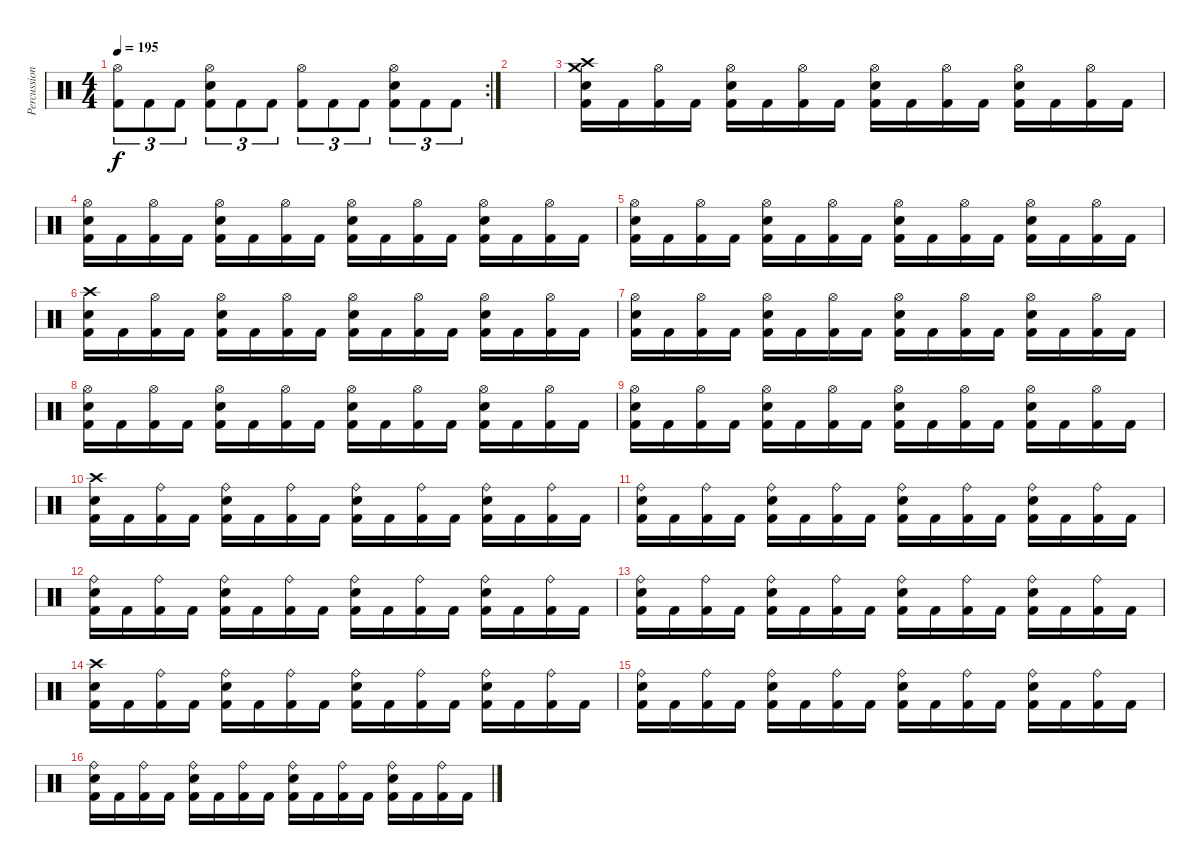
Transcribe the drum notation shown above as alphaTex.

\track ("Percussion" "Percussion") {instrument percussion}
\staff {score}
\articulation defaults
\rc 2
\ts (4 4)
\tempo 195
\clef neutral
\ks c
("Hi-Hat (open)" "Kick (hit) 2").8{tu (3 2) dy f} "Kick (hit) 2".8{tu (3 2)} "Kick (hit) 2".8{tu (3 2)} ("Hi-Hat (open)" "Electric Snare (hit)" "Kick (hit) 2").8{tu (3 2)} "Kick (hit) 2".8{tu (3 2)} "Kick (hit) 2".8{tu (3 2)} ("Hi-Hat (open)" "Kick (hit) 2").8{tu (3 2)} "Kick (hit) 2".8{tu (3 2)} "Kick (hit) 2".8{tu (3 2)} ("Hi-Hat (open)" "Electric Snare (hit)" "Kick (hit) 2").8{tu (3 2)} "Kick (hit) 2".8{tu (3 2)} "Kick (hit) 2".8{tu (3 2)} |
|
("Crash high (hit)" "Crash medium (hit)" "Electric Snare (hit)" "Kick (hit) 2").16 "Kick (hit) 2".16 ("Hi-Hat (open)" "Kick (hit) 2").16 "Kick (hit) 2".16 ("Hi-Hat (open)" "Electric Snare (hit)" "Kick (hit) 2").16 "Kick (hit) 2".16 ("Hi-Hat (open)" "Kick (hit) 2").16 "Kick (hit) 2".16 ("Hi-Hat (open)" "Electric Snare (hit)" "Kick (hit) 2").16 "Kick (hit) 2".16 ("Hi-Hat (open)" "Kick (hit) 2").16 "Kick (hit) 2".16 ("Hi-Hat (open)" "Electric Snare (hit)" "Kick (hit) 2").16 "Kick (hit) 2".16 ("Hi-Hat (open)" "Kick (hit) 2").16 "Kick (hit) 2".16 |
("Hi-Hat (open)" "Electric Snare (hit)" "Kick (hit) 2").16 "Kick (hit) 2".16 ("Hi-Hat (open)" "Kick (hit) 2").16 "Kick (hit) 2".16 ("Hi-Hat (open)" "Electric Snare (hit)" "Kick (hit) 2").16 "Kick (hit) 2".16 ("Hi-Hat (open)" "Kick (hit) 2").16 "Kick (hit) 2".16 ("Hi-Hat (open)" "Electric Snare (hit)" "Kick (hit) 2").16 "Kick (hit) 2".16 ("Hi-Hat (open)" "Kick (hit) 2").16 "Kick (hit) 2".16 ("Hi-Hat (open)" "Electric Snare (hit)" "Kick (hit) 2").16 "Kick (hit) 2".16 ("Hi-Hat (open)" "Kick (hit) 2").16 "Kick (hit) 2".16 |
("Hi-Hat (open)" "Electric Snare (hit)" "Kick (hit) 2").16 "Kick (hit) 2".16 ("Hi-Hat (open)" "Kick (hit) 2").16 "Kick (hit) 2".16 ("Hi-Hat (open)" "Electric Snare (hit)" "Kick (hit) 2").16 "Kick (hit) 2".16 ("Hi-Hat (open)" "Kick (hit) 2").16 "Kick (hit) 2".16 ("Hi-Hat (open)" "Electric Snare (hit)" "Kick (hit) 2").16 "Kick (hit) 2".16 ("Hi-Hat (open)" "Kick (hit) 2").16 "Kick (hit) 2".16 ("Hi-Hat (open)" "Electric Snare (hit)" "Kick (hit) 2").16 "Kick (hit) 2".16 ("Hi-Hat (open)" "Kick (hit) 2").16 "Kick (hit) 2".16 |
("Crash high (hit)" "Electric Snare (hit)" "Kick (hit) 2").16 "Kick (hit) 2".16 ("Hi-Hat (open)" "Kick (hit) 2").16 "Kick (hit) 2".16 ("Hi-Hat (open)" "Electric Snare (hit)" "Kick (hit) 2").16 "Kick (hit) 2".16 ("Hi-Hat (open)" "Kick (hit) 2").16 "Kick (hit) 2".16 ("Hi-Hat (open)" "Electric Snare (hit)" "Kick (hit) 2").16 "Kick (hit) 2".16 ("Hi-Hat (open)" "Kick (hit) 2").16 "Kick (hit) 2".16 ("Hi-Hat (open)" "Electric Snare (hit)" "Kick (hit) 2").16 "Kick (hit) 2".16 ("Hi-Hat (open)" "Kick (hit) 2").16 "Kick (hit) 2".16 |
("Hi-Hat (open)" "Electric Snare (hit)" "Kick (hit) 2").16 "Kick (hit) 2".16 ("Hi-Hat (open)" "Kick (hit) 2").16 "Kick (hit) 2".16 ("Hi-Hat (open)" "Electric Snare (hit)" "Kick (hit) 2").16 "Kick (hit) 2".16 ("Hi-Hat (open)" "Kick (hit) 2").16 "Kick (hit) 2".16 ("Hi-Hat (open)" "Electric Snare (hit)" "Kick (hit) 2").16 "Kick (hit) 2".16 ("Hi-Hat (open)" "Kick (hit) 2").16 "Kick (hit) 2".16 ("Hi-Hat (open)" "Electric Snare (hit)" "Kick (hit) 2").16 "Kick (hit) 2".16 ("Hi-Hat (open)" "Kick (hit) 2").16 "Kick (hit) 2".16 |
("Hi-Hat (open)" "Electric Snare (hit)" "Kick (hit) 2").16 "Kick (hit) 2".16 ("Hi-Hat (open)" "Kick (hit) 2").16 "Kick (hit) 2".16 ("Hi-Hat (open)" "Electric Snare (hit)" "Kick (hit) 2").16 "Kick (hit) 2".16 ("Hi-Hat (open)" "Kick (hit) 2").16 "Kick (hit) 2".16 ("Hi-Hat (open)" "Electric Snare (hit)" "Kick (hit) 2").16 "Kick (hit) 2".16 ("Hi-Hat (open)" "Kick (hit) 2").16 "Kick (hit) 2".16 ("Hi-Hat (open)" "Electric Snare (hit)" "Kick (hit) 2").16 "Kick (hit) 2".16 ("Hi-Hat (open)" "Kick (hit) 2").16 "Kick (hit) 2".16 |
("Hi-Hat (open)" "Electric Snare (hit)" "Kick (hit) 2").16 "Kick (hit) 2".16 ("Hi-Hat (open)" "Kick (hit) 2").16 "Kick (hit) 2".16 ("Hi-Hat (open)" "Electric Snare (hit)" "Kick (hit) 2").16 "Kick (hit) 2".16 ("Hi-Hat (open)" "Kick (hit) 2").16 "Kick (hit) 2".16 ("Hi-Hat (open)" "Electric Snare (hit)" "Kick (hit) 2").16 "Kick (hit) 2".16 ("Hi-Hat (open)" "Kick (hit) 2").16 "Kick (hit) 2".16 ("Hi-Hat (open)" "Electric Snare (hit)" "Kick (hit) 2").16 "Kick (hit) 2".16 ("Hi-Hat (open)" "Kick (hit) 2").16 "Kick (hit) 2".16 |
("Crash high (hit)" "Electric Snare (hit)" "Kick (hit) 2").16 "Kick (hit) 2".16 ("Ride (bell)" "Kick (hit) 2").16 "Kick (hit) 2".16 ("Ride (bell)" "Electric Snare (hit)" "Kick (hit) 2").16 "Kick (hit) 2".16 ("Ride (bell)" "Kick (hit) 2").16 "Kick (hit) 2".16 ("Ride (bell)" "Electric Snare (hit)" "Kick (hit) 2").16 "Kick (hit) 2".16 ("Ride (bell)" "Kick (hit) 2").16 "Kick (hit) 2".16 ("Ride (bell)" "Electric Snare (hit)" "Kick (hit) 2").16 "Kick (hit) 2".16 ("Ride (bell)" "Kick (hit) 2").16 "Kick (hit) 2".16 |
("Ride (bell)" "Electric Snare (hit)" "Kick (hit) 2").16 "Kick (hit) 2".16 ("Ride (bell)" "Kick (hit) 2").16 "Kick (hit) 2".16 ("Ride (bell)" "Electric Snare (hit)" "Kick (hit) 2").16 "Kick (hit) 2".16 ("Ride (bell)" "Kick (hit) 2").16 "Kick (hit) 2".16 ("Ride (bell)" "Electric Snare (hit)" "Kick (hit) 2").16 "Kick (hit) 2".16 ("Ride (bell)" "Kick (hit) 2").16 "Kick (hit) 2".16 ("Ride (bell)" "Electric Snare (hit)" "Kick (hit) 2").16 "Kick (hit) 2".16 ("Ride (bell)" "Kick (hit) 2").16 "Kick (hit) 2".16 |
("Ride (bell)" "Electric Snare (hit)" "Kick (hit) 2").16 "Kick (hit) 2".16 ("Ride (bell)" "Kick (hit) 2").16 "Kick (hit) 2".16 ("Ride (bell)" "Electric Snare (hit)" "Kick (hit) 2").16 "Kick (hit) 2".16 ("Ride (bell)" "Kick (hit) 2").16 "Kick (hit) 2".16 ("Ride (bell)" "Electric Snare (hit)" "Kick (hit) 2").16 "Kick (hit) 2".16 ("Ride (bell)" "Kick (hit) 2").16 "Kick (hit) 2".16 ("Ride (bell)" "Electric Snare (hit)" "Kick (hit) 2").16 "Kick (hit) 2".16 ("Ride (bell)" "Kick (hit) 2").16 "Kick (hit) 2".16 |
("Ride (bell)" "Electric Snare (hit)" "Kick (hit) 2").16 "Kick (hit) 2".16 ("Ride (bell)" "Kick (hit) 2").16 "Kick (hit) 2".16 ("Ride (bell)" "Electric Snare (hit)" "Kick (hit) 2").16 "Kick (hit) 2".16 ("Ride (bell)" "Kick (hit) 2").16 "Kick (hit) 2".16 ("Ride (bell)" "Electric Snare (hit)" "Kick (hit) 2").16 "Kick (hit) 2".16 ("Ride (bell)" "Kick (hit) 2").16 "Kick (hit) 2".16 ("Ride (bell)" "Electric Snare (hit)" "Kick (hit) 2").16 "Kick (hit) 2".16 ("Ride (bell)" "Kick (hit) 2").16 "Kick (hit) 2".16 |
("Crash high (hit)" "Electric Snare (hit)" "Kick (hit) 2").16 "Kick (hit) 2".16 ("Ride (bell)" "Kick (hit) 2").16 "Kick (hit) 2".16 ("Ride (bell)" "Electric Snare (hit)" "Kick (hit) 2").16 "Kick (hit) 2".16 ("Ride (bell)" "Kick (hit) 2").16 "Kick (hit) 2".16 ("Ride (bell)" "Electric Snare (hit)" "Kick (hit) 2").16 "Kick (hit) 2".16 ("Ride (bell)" "Kick (hit) 2").16 "Kick (hit) 2".16 ("Ride (bell)" "Electric Snare (hit)" "Kick (hit) 2").16 "Kick (hit) 2".16 ("Ride (bell)" "Kick (hit) 2").16 "Kick (hit) 2".16 |
("Ride (bell)" "Electric Snare (hit)" "Kick (hit) 2").16 "Kick (hit) 2".16 ("Ride (bell)" "Kick (hit) 2").16 "Kick (hit) 2".16 ("Ride (bell)" "Electric Snare (hit)" "Kick (hit) 2").16 "Kick (hit) 2".16 ("Ride (bell)" "Kick (hit) 2").16 "Kick (hit) 2".16 ("Ride (bell)" "Electric Snare (hit)" "Kick (hit) 2").16 "Kick (hit) 2".16 ("Ride (bell)" "Kick (hit) 2").16 "Kick (hit) 2".16 ("Ride (bell)" "Electric Snare (hit)" "Kick (hit) 2").16 "Kick (hit) 2".16 ("Ride (bell)" "Kick (hit) 2").16 "Kick (hit) 2".16 |
("Ride (bell)" "Electric Snare (hit)" "Kick (hit) 2").16 "Kick (hit) 2".16 ("Ride (bell)" "Kick (hit) 2").16 "Kick (hit) 2".16 ("Ride (bell)" "Electric Snare (hit)" "Kick (hit) 2").16 "Kick (hit) 2".16 ("Ride (bell)" "Kick (hit) 2").16 "Kick (hit) 2".16 ("Ride (bell)" "Electric Snare (hit)" "Kick (hit) 2").16 "Kick (hit) 2".16 ("Ride (bell)" "Kick (hit) 2").16 "Kick (hit) 2".16 ("Ride (bell)" "Electric Snare (hit)" "Kick (hit) 2").16 "Kick (hit) 2".16 ("Ride (bell)" "Kick (hit) 2").16 "Kick (hit) 2".16
